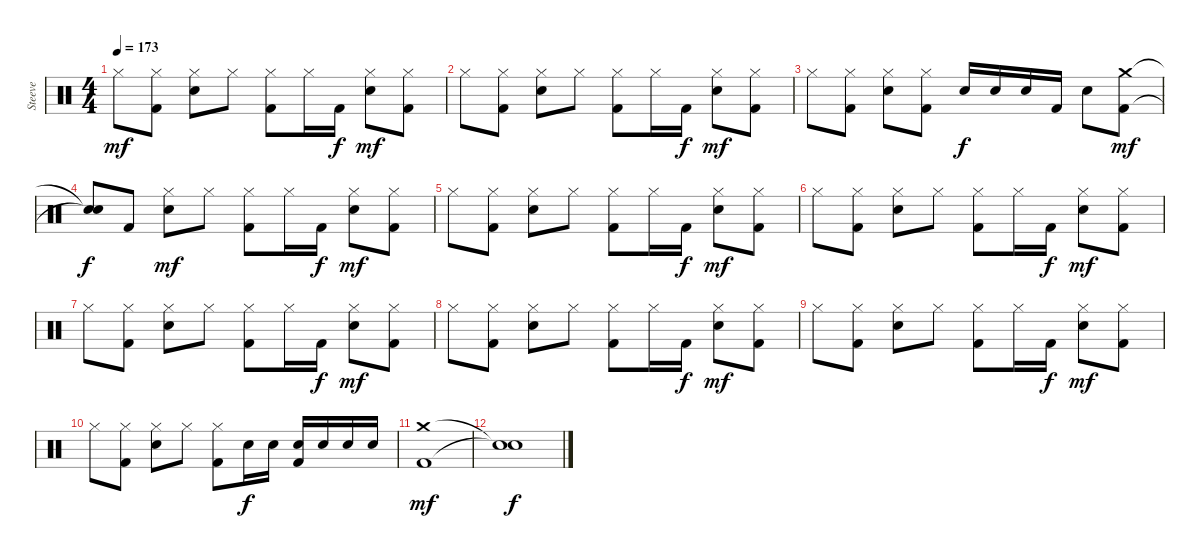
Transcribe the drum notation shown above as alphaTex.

\track ("Steeve" "Steeve") {instrument percussion}
\staff {score}
\articulation defaults
\ts (4 4)
\tempo 173
\clef neutral
\ks c "Hi-Hat (closed)".8{dy mf}
("Hi-Hat (closed)" "Kick (hit) 2").8 ("Hi-Hat (closed)" "Electric Snare (hit)").8 "Hi-Hat (closed)".8 ("Hi-Hat (closed)" "Kick (hit) 2").8 "Hi-Hat (closed)".16 "Kick (hit) 2".16{dy f} ("Hi-Hat (closed)" "Electric Snare (hit)").8{dy mf} ("Hi-Hat (closed)" "Kick (hit) 2").8 |
"Hi-Hat (closed)".8 ("Hi-Hat (closed)" "Kick (hit) 2").8 ("Hi-Hat (closed)" "Electric Snare (hit)").8 "Hi-Hat (closed)".8 ("Hi-Hat (closed)" "Kick (hit) 2").8 "Hi-Hat (closed)".16 "Kick (hit) 2".16{dy f} ("Hi-Hat (closed)" "Electric Snare (hit)").8{dy mf} ("Hi-Hat (closed)" "Kick (hit) 2").8 |
"Hi-Hat (closed)".8 ("Hi-Hat (closed)" "Kick (hit) 2").8 ("Hi-Hat (closed)" "Electric Snare (hit)").8 ("Hi-Hat (closed)" "Kick (hit) 2").8 "Electric Snare (hit)".16{dy f} "Electric Snare (hit)".16 "Electric Snare (hit)".16 "Kick (hit) 2".16 "Electric Snare (hit)".8 ("Crash medium (hit)" "Kick (hit) 2").8{dy mf} |
("Snare (hit)"{t} "Snare (hit)"{t}).8{dy f} "Kick (hit) 2".8 ("Hi-Hat (closed)" "Electric Snare (hit)").8{dy mf} "Hi-Hat (closed)".8 ("Hi-Hat (closed)" "Kick (hit) 2").8 "Hi-Hat (closed)".16 "Kick (hit) 2".16{dy f} ("Hi-Hat (closed)" "Electric Snare (hit)").8{dy mf} ("Hi-Hat (closed)" "Kick (hit) 2").8 |
"Hi-Hat (closed)".8 ("Hi-Hat (closed)" "Kick (hit) 2").8 ("Hi-Hat (closed)" "Electric Snare (hit)").8 "Hi-Hat (closed)".8 ("Hi-Hat (closed)" "Kick (hit) 2").8 "Hi-Hat (closed)".16 "Kick (hit) 2".16{dy f} ("Hi-Hat (closed)" "Electric Snare (hit)").8{dy mf} ("Hi-Hat (closed)" "Kick (hit) 2").8 |
"Hi-Hat (closed)".8 ("Hi-Hat (closed)" "Kick (hit) 2").8 ("Hi-Hat (closed)" "Electric Snare (hit)").8 "Hi-Hat (closed)".8 ("Hi-Hat (closed)" "Kick (hit) 2").8 "Hi-Hat (closed)".16 "Kick (hit) 2".16{dy f} ("Hi-Hat (closed)" "Electric Snare (hit)").8{dy mf} ("Hi-Hat (closed)" "Kick (hit) 2").8 |
"Hi-Hat (closed)".8 ("Hi-Hat (closed)" "Kick (hit) 2").8 ("Hi-Hat (closed)" "Electric Snare (hit)").8 "Hi-Hat (closed)".8 ("Hi-Hat (closed)" "Kick (hit) 2").8 "Hi-Hat (closed)".16 "Kick (hit) 2".16{dy f} ("Hi-Hat (closed)" "Electric Snare (hit)").8{dy mf} ("Hi-Hat (closed)" "Kick (hit) 2").8 |
"Hi-Hat (closed)".8 ("Hi-Hat (closed)" "Kick (hit) 2").8 ("Hi-Hat (closed)" "Electric Snare (hit)").8 "Hi-Hat (closed)".8 ("Hi-Hat (closed)" "Kick (hit) 2").8 "Hi-Hat (closed)".16 "Kick (hit) 2".16{dy f} ("Hi-Hat (closed)" "Electric Snare (hit)").8{dy mf} ("Hi-Hat (closed)" "Kick (hit) 2").8 |
"Hi-Hat (closed)".8 ("Hi-Hat (closed)" "Kick (hit) 2").8 ("Hi-Hat (closed)" "Electric Snare (hit)").8 "Hi-Hat (closed)".8 ("Hi-Hat (closed)" "Kick (hit) 2").8 "Hi-Hat (closed)".16 "Kick (hit) 2".16{dy f} ("Hi-Hat (closed)" "Electric Snare (hit)").8{dy mf} ("Hi-Hat (closed)" "Kick (hit) 2").8 |
"Hi-Hat (closed)".8 ("Hi-Hat (closed)" "Kick (hit) 2").8 ("Hi-Hat (closed)" "Electric Snare (hit)").8 "Hi-Hat (closed)".8 ("Hi-Hat (closed)" "Kick (hit) 2").8 "Electric Snare (hit)".16{dy f} "Electric Snare (hit)".16 ("Electric Snare (hit)" "Kick (hit) 2").16 "Electric Snare (hit)".16 "Electric Snare (hit)".16 "Electric Snare (hit)".16 |
("Crash medium (hit)" "Kick (hit) 2").1{dy mf} |
("Snare (hit)"{t} "Snare (hit)"{t}).1{dy f}
